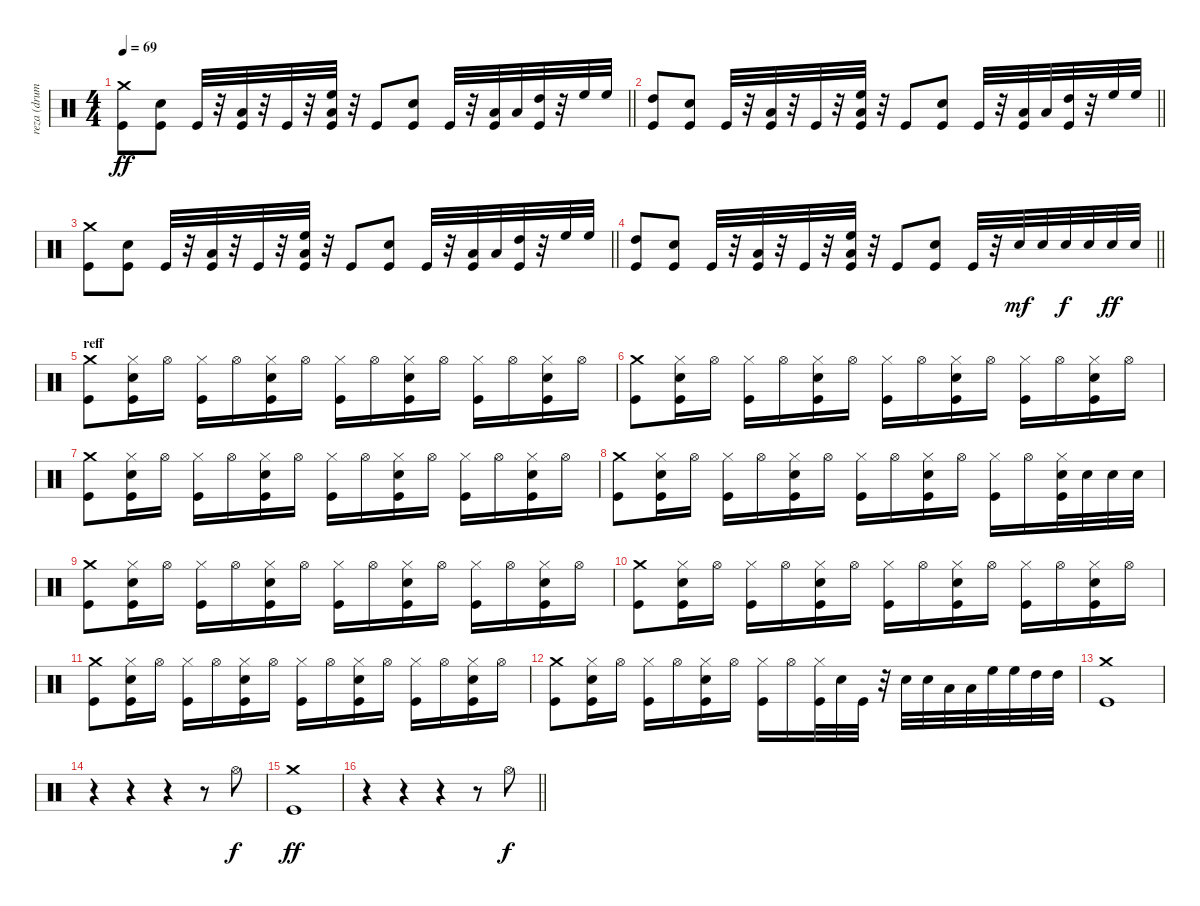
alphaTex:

\track ("reza (drum)" "reza (drum") {instrument percussion}
\staff {score}
\articulation defaults
\ts (4 4)
\tempo 69
\clef neutral
\barLineRight lightlight
\ks c
("Crash medium (hit)" "Kick (hit)").8{dy ff} ("Electric Snare (hit)" "Kick (hit)").8 "Kick (hit)".32 r.32 ("Low Tom (hit)" "Kick (hit)").32 r.32 "Kick (hit)".32 r.32 ("High Floor Tom (hit)" "Low Tom (hit)" "Kick (hit)").32 r.32 "Kick (hit)".8 ("Electric Snare (hit)" "Kick (hit)").8 "Kick (hit)".32 r.32 ("Low Tom (hit)" "Kick (hit)").32 "Low Tom (hit)".32 ("High Tom (hit)" "Kick (hit)").32 r.32 "High Floor Tom (hit)".32 "High Floor Tom (hit)".32 |
\barLineRight lightlight
("High Tom (hit)" "Kick (hit)").8 ("Electric Snare (hit)" "Kick (hit)").8 "Kick (hit)".32 r.32 ("Low Tom (hit)" "Kick (hit)").32 r.32 "Kick (hit)".32 r.32 ("High Floor Tom (hit)" "Low Tom (hit)" "Kick (hit)").32 r.32 "Kick (hit)".8 ("Electric Snare (hit)" "Kick (hit)").8 "Kick (hit)".32 r.32 ("Low Tom (hit)" "Kick (hit)").32 "Low Tom (hit)".32 ("High Tom (hit)" "Kick (hit)").32 r.32 "High Floor Tom (hit)".32 "High Floor Tom (hit)".32 |
\barLineRight lightlight
("Crash medium (hit)" "Kick (hit)").8 ("Electric Snare (hit)" "Kick (hit)").8 "Kick (hit)".32 r.32 ("Low Tom (hit)" "Kick (hit)").32 r.32 "Kick (hit)".32 r.32 ("High Floor Tom (hit)" "Low Tom (hit)" "Kick (hit)").32 r.32 "Kick (hit)".8 ("Electric Snare (hit)" "Kick (hit)").8 "Kick (hit)".32 r.32 ("Low Tom (hit)" "Kick (hit)").32 "Low Tom (hit)".32 ("High Tom (hit)" "Kick (hit)").32 r.32 "High Floor Tom (hit)".32 "High Floor Tom (hit)".32 |
\barLineRight lightlight
("High Tom (hit)" "Kick (hit)").8 ("Electric Snare (hit)" "Kick (hit)").8 "Kick (hit)".32 r.32 ("Low Tom (hit)" "Kick (hit)").32 r.32 "Kick (hit)".32 r.32 ("High Floor Tom (hit)" "Low Tom (hit)" "Kick (hit)").32 r.32 "Kick (hit)".8 ("Electric Snare (hit)" "Kick (hit)").8 "Kick (hit)".32 r.32 "Electric Snare (hit)".32{dy mf} "Electric Snare (hit)".32 "Electric Snare (hit)".32{dy f} "Electric Snare (hit)".32 "Electric Snare (hit)".32{dy ff} "Electric Snare (hit)".32 |
\section ("" "reff")
("Crash medium (hit)" "Kick (hit)").8 ("Hi-Hat (closed)" "Electric Snare (hit)" "Kick (hit)").16 "Hi-Hat (open)".16 ("Hi-Hat (closed)" "Kick (hit)").16 "Hi-Hat (open)".16 ("Hi-Hat (closed)" "Electric Snare (hit)" "Kick (hit)").16 "Hi-Hat (open)".16 ("Hi-Hat (closed)" "Kick (hit)").16 "Hi-Hat (open)".16 ("Hi-Hat (closed)" "Electric Snare (hit)" "Kick (hit)").16 "Hi-Hat (open)".16 ("Hi-Hat (closed)" "Kick (hit)").16 "Hi-Hat (open)".16 ("Hi-Hat (closed)" "Electric Snare (hit)" "Kick (hit)").16 "Hi-Hat (open)".16 |
("Crash medium (hit)" "Kick (hit)").8 ("Hi-Hat (closed)" "Electric Snare (hit)" "Kick (hit)").16 "Hi-Hat (open)".16 ("Hi-Hat (closed)" "Kick (hit)").16 "Hi-Hat (open)".16 ("Hi-Hat (closed)" "Electric Snare (hit)" "Kick (hit)").16 "Hi-Hat (open)".16 ("Hi-Hat (closed)" "Kick (hit)").16 "Hi-Hat (open)".16 ("Hi-Hat (closed)" "Electric Snare (hit)" "Kick (hit)").16 "Hi-Hat (open)".16 ("Hi-Hat (closed)" "Kick (hit)").16 "Hi-Hat (open)".16 ("Hi-Hat (closed)" "Electric Snare (hit)" "Kick (hit)").16 "Hi-Hat (open)".16 |
("Crash medium (hit)" "Kick (hit)").8 ("Hi-Hat (closed)" "Electric Snare (hit)" "Kick (hit)").16 "Hi-Hat (open)".16 ("Hi-Hat (closed)" "Kick (hit)").16 "Hi-Hat (open)".16 ("Hi-Hat (closed)" "Electric Snare (hit)" "Kick (hit)").16 "Hi-Hat (open)".16 ("Hi-Hat (closed)" "Kick (hit)").16 "Hi-Hat (open)".16 ("Hi-Hat (closed)" "Electric Snare (hit)" "Kick (hit)").16 "Hi-Hat (open)".16 ("Hi-Hat (closed)" "Kick (hit)").16 "Hi-Hat (open)".16 ("Hi-Hat (closed)" "Electric Snare (hit)" "Kick (hit)").16 "Hi-Hat (open)".16 |
("Crash medium (hit)" "Kick (hit)").8 ("Hi-Hat (closed)" "Electric Snare (hit)" "Kick (hit)").16 "Hi-Hat (open)".16 ("Hi-Hat (closed)" "Kick (hit)").16 "Hi-Hat (open)".16 ("Hi-Hat (closed)" "Electric Snare (hit)" "Kick (hit)").16 "Hi-Hat (open)".16 ("Hi-Hat (closed)" "Kick (hit)").16 "Hi-Hat (open)".16 ("Hi-Hat (closed)" "Electric Snare (hit)" "Kick (hit)").16 "Hi-Hat (open)".16 ("Hi-Hat (closed)" "Kick (hit)").16 "Hi-Hat (open)".16 ("Hi-Hat (closed)" "Electric Snare (hit)" "Kick (hit)").32 "Electric Snare (hit)".32 "Electric Snare (hit)".32 "Electric Snare (hit)".32 |
("Crash medium (hit)" "Kick (hit)").8 ("Hi-Hat (closed)" "Electric Snare (hit)" "Kick (hit)").16 "Hi-Hat (open)".16 ("Hi-Hat (closed)" "Kick (hit)").16 "Hi-Hat (open)".16 ("Hi-Hat (closed)" "Electric Snare (hit)" "Kick (hit)").16 "Hi-Hat (open)".16 ("Hi-Hat (closed)" "Kick (hit)").16 "Hi-Hat (open)".16 ("Hi-Hat (closed)" "Electric Snare (hit)" "Kick (hit)").16 "Hi-Hat (open)".16 ("Hi-Hat (closed)" "Kick (hit)").16 "Hi-Hat (open)".16 ("Hi-Hat (closed)" "Electric Snare (hit)" "Kick (hit)").16 "Hi-Hat (open)".16 |
("Crash medium (hit)" "Kick (hit)").8 ("Hi-Hat (closed)" "Electric Snare (hit)" "Kick (hit)").16 "Hi-Hat (open)".16 ("Hi-Hat (closed)" "Kick (hit)").16 "Hi-Hat (open)".16 ("Hi-Hat (closed)" "Electric Snare (hit)" "Kick (hit)").16 "Hi-Hat (open)".16 ("Hi-Hat (closed)" "Kick (hit)").16 "Hi-Hat (open)".16 ("Hi-Hat (closed)" "Electric Snare (hit)" "Kick (hit)").16 "Hi-Hat (open)".16 ("Hi-Hat (closed)" "Kick (hit)").16 "Hi-Hat (open)".16 ("Hi-Hat (closed)" "Electric Snare (hit)" "Kick (hit)").16 "Hi-Hat (open)".16 |
("Crash medium (hit)" "Kick (hit)").8 ("Hi-Hat (closed)" "Electric Snare (hit)" "Kick (hit)").16 "Hi-Hat (open)".16 ("Hi-Hat (closed)" "Kick (hit)").16 "Hi-Hat (open)".16 ("Hi-Hat (closed)" "Electric Snare (hit)" "Kick (hit)").16 "Hi-Hat (open)".16 ("Hi-Hat (closed)" "Kick (hit)").16 "Hi-Hat (open)".16 ("Hi-Hat (closed)" "Electric Snare (hit)" "Kick (hit)").16 "Hi-Hat (open)".16 ("Hi-Hat (closed)" "Kick (hit)").16 "Hi-Hat (open)".16 ("Hi-Hat (closed)" "Electric Snare (hit)" "Kick (hit)").16 "Hi-Hat (open)".16 |
("Crash medium (hit)" "Kick (hit)").8 ("Hi-Hat (closed)" "Electric Snare (hit)" "Kick (hit)").16 "Hi-Hat (open)".16 ("Hi-Hat (closed)" "Kick (hit)").16 "Hi-Hat (open)".16 ("Hi-Hat (closed)" "Electric Snare (hit)" "Kick (hit)").16 "Hi-Hat (open)".16 ("Hi-Hat (closed)" "Kick (hit)").16 "Hi-Hat (open)".16 ("Hi-Hat (closed)" "Kick (hit)").32 "Electric Snare (hit)".32 "Kick (hit)".32 r.32 "Electric Snare (hit)".32 "Electric Snare (hit)".32 "Low Tom (hit)".32 "Low Tom (hit)".32 "High Floor Tom (hit)".32 "High Floor Tom (hit)".32 "High Tom (hit)".32 "High Tom (hit)".32 |
("Crash medium (hit)" "Kick (hit)").1 |
r.4 r.4 r.4 r.8 "Hi-Hat (open)".8{dy f} |
("Crash medium (hit)" "Kick (hit)").1{dy ff} |
\barLineRight lightlight
r.4 r.4 r.4 r.8 "Hi-Hat (open)".8{dy f}
